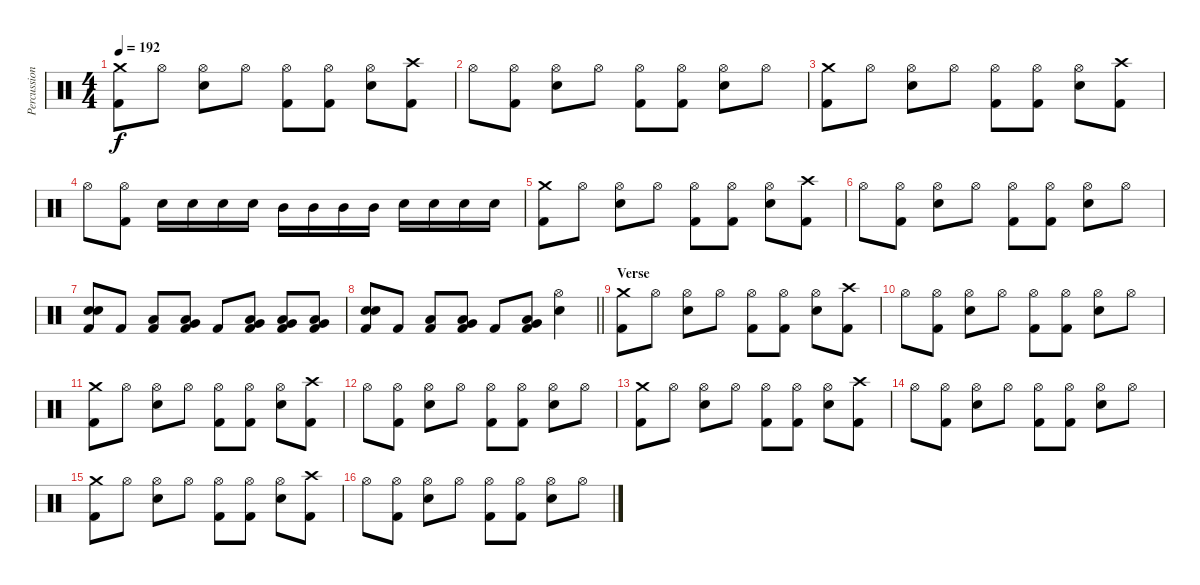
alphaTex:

\track ("Percussion" "Percussion") {instrument percussion}
\staff {score}
\articulation defaults
\ts (4 4)
\tempo 192
\clef neutral
\ks c
("Crash medium (hit)" "Kick (hit) 2").8{dy f} "Hi-Hat (open)".8 ("Hi-Hat (open)" "Electric Snare (hit)").8 "Hi-Hat (open)".8 ("Hi-Hat (open)" "Kick (hit) 2").8 ("Hi-Hat (open)" "Kick (hit) 2").8 ("Hi-Hat (open)" "Electric Snare (hit)").8 ("Crash high (hit)" "Kick (hit) 2").8 |
"Hi-Hat (open)".8 ("Hi-Hat (open)" "Kick (hit) 2").8 ("Hi-Hat (open)" "Electric Snare (hit)").8 "Hi-Hat (open)".8 ("Hi-Hat (open)" "Kick (hit) 2").8 ("Hi-Hat (open)" "Kick (hit) 2").8 ("Hi-Hat (open)" "Electric Snare (hit)").8 "Hi-Hat (open)".8 |
("Crash medium (hit)" "Kick (hit) 2").8 "Hi-Hat (open)".8 ("Hi-Hat (open)" "Electric Snare (hit)").8 "Hi-Hat (open)".8 ("Hi-Hat (open)" "Kick (hit) 2").8 ("Hi-Hat (open)" "Kick (hit) 2").8 ("Hi-Hat (open)" "Electric Snare (hit)").8 ("Crash high (hit)" "Kick (hit) 2").8 |
"Hi-Hat (open)".8 ("Hi-Hat (open)" "Kick (hit) 2").8 "Electric Snare (hit)".16 "Electric Snare (hit)".16 "Electric Snare (hit)".16 "Electric Snare (hit)".16 "Mid Tom (hit)".16 "Mid Tom (hit)".16 "Mid Tom (hit)".16 "Mid Tom (hit)".16 "Electric Snare (hit)".16 "Electric Snare (hit)".16 "Electric Snare (hit)".16 "Electric Snare (hit)".16 |
("Crash medium (hit)" "Kick (hit) 2").8 "Hi-Hat (open)".8 ("Hi-Hat (open)" "Electric Snare (hit)").8 "Hi-Hat (open)".8 ("Hi-Hat (open)" "Kick (hit) 2").8 ("Hi-Hat (open)" "Kick (hit) 2").8 ("Hi-Hat (open)" "Electric Snare (hit)").8 ("Crash high (hit)" "Kick (hit) 2").8 |
"Hi-Hat (open)".8 ("Hi-Hat (open)" "Kick (hit) 2").8 ("Hi-Hat (open)" "Electric Snare (hit)").8 "Hi-Hat (open)".8 ("Hi-Hat (open)" "Kick (hit) 2").8 ("Hi-Hat (open)" "Kick (hit) 2").8 ("Hi-Hat (open)" "Electric Snare (hit)").8 "Hi-Hat (open)".8 |
("Electric Snare (hit)" "Electric Snare (hit)" "Kick (hit) 2").8 "Kick (hit) 2".8 ("Low Tom (hit)" "Kick (hit) 2").8 ("Low Tom (hit)" "Very Low Tom (hit)" "Kick (hit) 2").8 "Kick (hit) 2".8 ("Very Low Tom (hit)" "Low Floor Tom (hit)" "Kick (hit) 2").8 ("Very Low Tom (hit)" "Low Floor Tom (hit)" "Kick (hit) 2").8 ("Very Low Tom (hit)" "Low Floor Tom (hit)" "Kick (hit) 2").8 |
\barLineRight lightlight
("Electric Snare (hit)" "Electric Snare (hit)" "Kick (hit) 2").8 "Kick (hit) 2".8 ("Low Tom (hit)" "Kick (hit) 2").8 ("Low Tom (hit)" "Very Low Tom (hit)" "Kick (hit) 2").8 "Kick (hit) 2".8 ("Very Low Tom (hit)" "Low Floor Tom (hit)" "Kick (hit) 2").8 ("Hi-Hat (open)" "Electric Snare (hit)").4 |
\section ("" "Verse")
("Crash medium (hit)" "Kick (hit) 2").8 "Hi-Hat (open)".8 ("Hi-Hat (open)" "Electric Snare (hit)").8 "Hi-Hat (open)".8 ("Hi-Hat (open)" "Kick (hit) 2").8 ("Hi-Hat (open)" "Kick (hit) 2").8 ("Hi-Hat (open)" "Electric Snare (hit)").8 ("Crash high (hit)" "Kick (hit) 2").8 |
"Hi-Hat (open)".8 ("Hi-Hat (open)" "Kick (hit) 2").8 ("Hi-Hat (open)" "Electric Snare (hit)").8 "Hi-Hat (open)".8 ("Hi-Hat (open)" "Kick (hit) 2").8 ("Hi-Hat (open)" "Kick (hit) 2").8 ("Hi-Hat (open)" "Electric Snare (hit)").8 "Hi-Hat (open)".8 |
("Crash medium (hit)" "Kick (hit) 2").8 "Hi-Hat (open)".8 ("Hi-Hat (open)" "Electric Snare (hit)").8 "Hi-Hat (open)".8 ("Hi-Hat (open)" "Kick (hit) 2").8 ("Hi-Hat (open)" "Kick (hit) 2").8 ("Hi-Hat (open)" "Electric Snare (hit)").8 ("Crash high (hit)" "Kick (hit) 2").8 |
"Hi-Hat (open)".8 ("Hi-Hat (open)" "Kick (hit) 2").8 ("Hi-Hat (open)" "Electric Snare (hit)").8 "Hi-Hat (open)".8 ("Hi-Hat (open)" "Kick (hit) 2").8 ("Hi-Hat (open)" "Kick (hit) 2").8 ("Hi-Hat (open)" "Electric Snare (hit)").8 "Hi-Hat (open)".8 |
("Crash medium (hit)" "Kick (hit) 2").8 "Hi-Hat (open)".8 ("Hi-Hat (open)" "Electric Snare (hit)").8 "Hi-Hat (open)".8 ("Hi-Hat (open)" "Kick (hit) 2").8 ("Hi-Hat (open)" "Kick (hit) 2").8 ("Hi-Hat (open)" "Electric Snare (hit)").8 ("Crash high (hit)" "Kick (hit) 2").8 |
"Hi-Hat (open)".8 ("Hi-Hat (open)" "Kick (hit) 2").8 ("Hi-Hat (open)" "Electric Snare (hit)").8 "Hi-Hat (open)".8 ("Hi-Hat (open)" "Kick (hit) 2").8 ("Hi-Hat (open)" "Kick (hit) 2").8 ("Hi-Hat (open)" "Electric Snare (hit)").8 "Hi-Hat (open)".8 |
("Crash medium (hit)" "Kick (hit) 2").8 "Hi-Hat (open)".8 ("Hi-Hat (open)" "Electric Snare (hit)").8 "Hi-Hat (open)".8 ("Hi-Hat (open)" "Kick (hit) 2").8 ("Hi-Hat (open)" "Kick (hit) 2").8 ("Hi-Hat (open)" "Electric Snare (hit)").8 ("Crash high (hit)" "Kick (hit) 2").8 |
"Hi-Hat (open)".8 ("Hi-Hat (open)" "Kick (hit) 2").8 ("Hi-Hat (open)" "Electric Snare (hit)").8 "Hi-Hat (open)".8 ("Hi-Hat (open)" "Kick (hit) 2").8 ("Hi-Hat (open)" "Kick (hit) 2").8 ("Hi-Hat (open)" "Electric Snare (hit)").8 "Hi-Hat (open)".8
